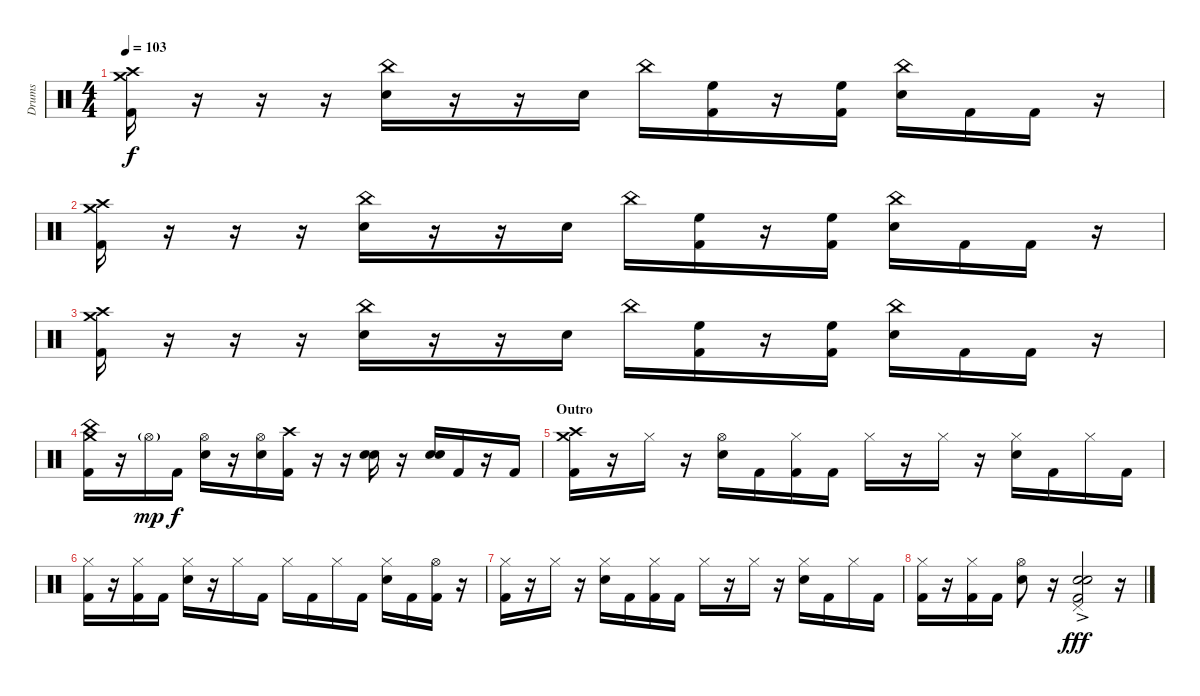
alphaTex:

\track ("Drums" "Drums") {instrument percussion}
\staff {score}
\articulation defaults
\ts (4 4)
\tempo 103
\clef neutral
\ks c
("Crash medium (hit)" "Crash high (hit)" "Kick (hit) 2").16{dy f} r.16 r.16 r.16 ("China (hit)" "Snare (hit) 2").16 r.16 r.16 "Snare (hit) 2".16 "China (hit)".16 ("High Floor Tom (hit)" "Kick (hit) 2").16 r.16 ("High Floor Tom (hit)" "Kick (hit) 2").16 ("China (hit)" "Snare (hit) 2").16 "Kick (hit) 2".16 "Kick (hit) 2".16 r.16 |
("Crash medium (hit)" "Crash high (hit)" "Kick (hit) 2").16 r.16 r.16 r.16 ("China (hit)" "Snare (hit) 2").16 r.16 r.16 "Snare (hit) 2".16 "China (hit)".16 ("High Floor Tom (hit)" "Kick (hit) 2").16 r.16 ("High Floor Tom (hit)" "Kick (hit) 2").16 ("China (hit)" "Snare (hit) 2").16 "Kick (hit) 2".16 "Kick (hit) 2".16 r.16 |
("Crash medium (hit)" "Crash high (hit)" "Kick (hit) 2").16 r.16 r.16 r.16 ("China (hit)" "Snare (hit) 2").16 r.16 r.16 "Snare (hit) 2".16 "China (hit)".16 ("High Floor Tom (hit)" "Kick (hit) 2").16 r.16 ("High Floor Tom (hit)" "Kick (hit) 2").16 ("China (hit)" "Snare (hit) 2").16 "Kick (hit) 2".16 "Kick (hit) 2".16 r.16 |
("Crash medium (hit)" "China (hit)" "Kick (hit) 2").16 r.16 "Hi-Hat (open)"{g}.16{dy mp} "Kick (hit) 2".16{dy f} ("Hi-Hat (open)" "Snare (hit) 2").16 r.16 ("Hi-Hat (open)" "Snare (hit) 2").16 ("Crash high (hit)" "Kick (hit) 2").16 r.16 r.16 ("Snare (hit) 2" "Snare (hit) 2").16 r.16 ("Snare (hit) 2" "Snare (hit) 2").16 "Kick (hit) 2".16 r.16 "Kick (hit) 2".16 |
\section ("" "Outro")
("Crash high (hit)" "Crash medium (hit)" "Kick (hit) 2").16 r.16 "Hi-Hat (closed)".16 r.16 ("Hi-Hat (open)" "Snare (hit) 2").16 "Kick (hit) 2".16 ("Hi-Hat (closed)" "Kick (hit) 2").16 "Kick (hit) 2".16 "Hi-Hat (closed)".16 r.16 "Hi-Hat (closed)".16 r.16 ("Hi-Hat (closed)" "Snare (hit) 2").16 "Kick (hit) 2".16 "Hi-Hat (closed)".16 "Kick (hit) 2".16 |
("Hi-Hat (closed)" "Kick (hit) 2").16 r.16 ("Hi-Hat (closed)" "Kick (hit) 2").16 "Kick (hit) 2".16 ("Hi-Hat (closed)" "Snare (hit) 2").16 r.16 "Hi-Hat (closed)".16 "Kick (hit) 2".16 "Hi-Hat (closed)".16 "Kick (hit) 2".16 "Hi-Hat (closed)".16 "Kick (hit) 2".16 ("Hi-Hat (closed)" "Snare (hit) 2").16 "Kick (hit) 2".16 ("Hi-Hat (open)" "Kick (hit) 2").16 r.16 |
("Hi-Hat (closed)" "Kick (hit) 2").16 r.16 "Hi-Hat (closed)".16 r.16 ("Hi-Hat (closed)" "Snare (hit) 2").16 "Kick (hit) 2".16 ("Hi-Hat (closed)" "Kick (hit) 2").16 "Kick (hit) 2".16 "Hi-Hat (closed)".16 r.16 "Hi-Hat (closed)".16 r.16 ("Hi-Hat (closed)" "Snare (hit) 2").16 "Kick (hit) 2".16 "Hi-Hat (closed)".16 "Kick (hit) 2".16 |
("Hi-Hat (closed)" "Kick (hit) 2").16 r.16 ("Hi-Hat (closed)" "Kick (hit) 2").16 "Kick (hit) 2".16 ("Hi-Hat (open)" "Snare (hit) 2").8 r.16 ("Pedal Hi-Hat (hit)" "Snare (hit) 2"{ac} "Snare (hit) 2"{ac} "Kick (hit) 2").2{dy fff} r.16
